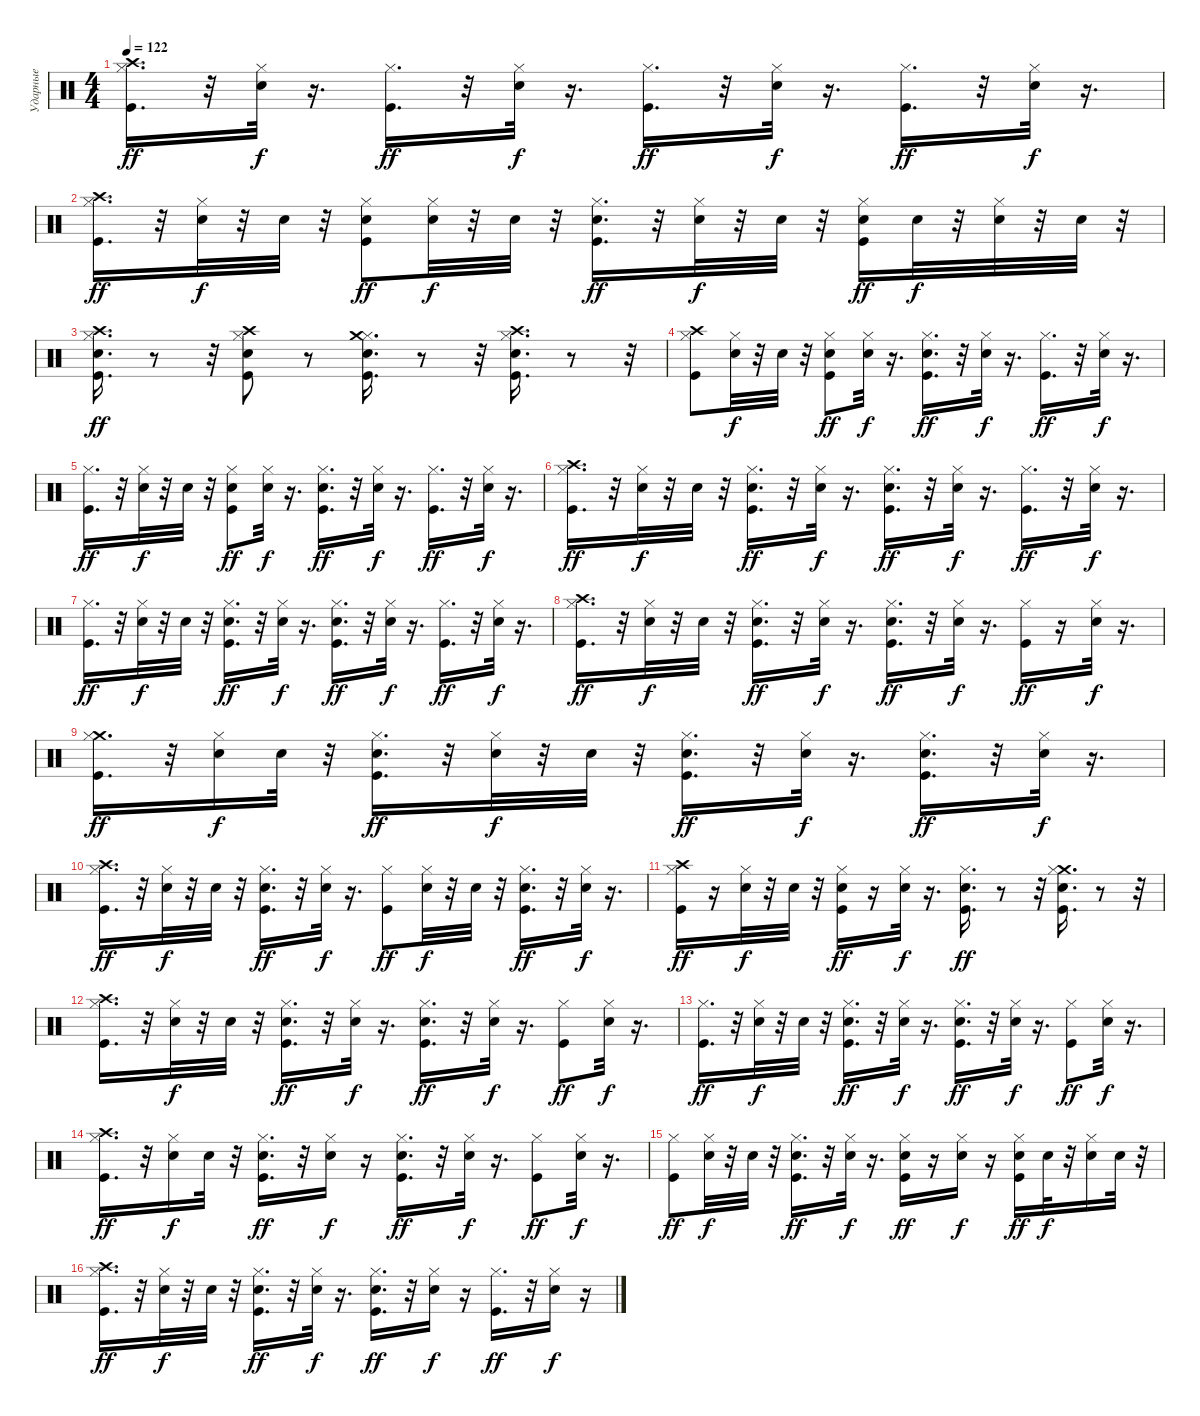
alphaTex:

\track ("Ударные" "Ударные") {instrument percussion}
\staff {score}
\articulation defaults
\ts (4 4)
\tempo 122
\clef neutral
\ks c
("Crash high (hit)" "Hi-Hat (closed)" "Kick (hit)").16{d dy ff} r.32 ("Hi-Hat (closed)" "Electric Snare (hit)").32{dy f} r.16{d} ("Hi-Hat (closed)" "Kick (hit)").16{d dy ff} r.32 ("Hi-Hat (closed)" "Electric Snare (hit)").32{dy f} r.16{d} ("Hi-Hat (closed)" "Kick (hit)").16{d dy ff} r.32 ("Hi-Hat (closed)" "Electric Snare (hit)").32{dy f} r.16{d} ("Hi-Hat (closed)" "Kick (hit)").16{d dy ff} r.32 ("Hi-Hat (closed)" "Electric Snare (hit)").32{dy f} r.16{d} |
("Crash high (hit)" "Hi-Hat (closed)" "Kick (hit)").16{d dy ff} r.32 ("Hi-Hat (closed)" "Electric Snare (hit)").32{dy f} r.32 "Electric Snare (hit)".32 r.32 ("Kick (hit)" "Hi-Hat (closed)" "Electric Snare (hit)").8{dy ff} ("Electric Snare (hit)" "Hi-Hat (closed)").32{dy f} r.32 "Electric Snare (hit)".32 r.32 ("Electric Snare (hit)" "Kick (hit)" "Hi-Hat (closed)").16{d dy ff} r.32 ("Hi-Hat (closed)" "Electric Snare (hit)").32{dy f} r.32 "Electric Snare (hit)".32 r.32 ("Kick (hit)" "Hi-Hat (closed)" "Electric Snare (hit)").16{dy ff} "Electric Snare (hit)".32{dy f} r.32 ("Electric Snare (hit)" "Hi-Hat (closed)").32 r.32 "Electric Snare (hit)".32 r.32 |
("Electric Snare (hit)" "Crash high (hit)" "Hi-Hat (closed)" "Kick (hit)").16{d dy ff} r.8 r.32 ("Electric Snare (hit)" "Crash high (hit)" "Hi-Hat (closed)" "Kick (hit)").8 r.8 ("Electric Snare (hit)" "Kick (hit)" "Hi-Hat (closed)" "Crash medium (hit)").16{d} r.8 r.32 ("Hi-Hat (closed)" "Kick (hit)" "Crash high (hit)" "Electric Snare (hit)").16{d} r.8 r.32 |
("Crash high (hit)" "Kick (hit)" "Hi-Hat (closed)").8 ("Electric Snare (hit)" "Hi-Hat (closed)").32{dy f} r.32 "Electric Snare (hit)".32 r.32 ("Electric Snare (hit)" "Hi-Hat (closed)" "Kick (hit)").8{dy ff} ("Electric Snare (hit)" "Hi-Hat (closed)").32{dy f} r.16{d} ("Electric Snare (hit)" "Hi-Hat (closed)" "Kick (hit)").16{d dy ff} r.32 ("Electric Snare (hit)" "Hi-Hat (closed)").32{dy f} r.16{d} ("Hi-Hat (closed)" "Kick (hit)").16{d dy ff} r.32 ("Electric Snare (hit)" "Hi-Hat (closed)").32{dy f} r.16{d} |
("Kick (hit)" "Hi-Hat (closed)").16{d dy ff} r.32 ("Electric Snare (hit)" "Hi-Hat (closed)").32{dy f} r.32 "Electric Snare (hit)".32 r.32 ("Electric Snare (hit)" "Hi-Hat (closed)" "Kick (hit)").8{dy ff} ("Electric Snare (hit)" "Hi-Hat (closed)").32{dy f} r.16{d} ("Electric Snare (hit)" "Kick (hit)" "Hi-Hat (closed)").16{d dy ff} r.32 ("Electric Snare (hit)" "Hi-Hat (closed)").32{dy f} r.16{d} ("Kick (hit)" "Hi-Hat (closed)").16{d dy ff} r.32 ("Hi-Hat (closed)" "Electric Snare (hit)").32{dy f} r.16{d} |
("Crash high (hit)" "Kick (hit)" "Hi-Hat (closed)").16{d dy ff} r.32 ("Hi-Hat (closed)" "Electric Snare (hit)").32{dy f} r.32 "Electric Snare (hit)".32 r.32 ("Hi-Hat (closed)" "Kick (hit)" "Electric Snare (hit)").16{d dy ff} r.32 ("Hi-Hat (closed)" "Electric Snare (hit)").32{dy f} r.16{d} ("Hi-Hat (closed)" "Kick (hit)" "Electric Snare (hit)").16{d dy ff} r.32 ("Hi-Hat (closed)" "Electric Snare (hit)").32{dy f} r.16{d} ("Hi-Hat (closed)" "Kick (hit)").16{d dy ff} r.32 ("Hi-Hat (closed)" "Electric Snare (hit)").32{dy f} r.16{d} |
("Hi-Hat (closed)" "Kick (hit)").16{d dy ff} r.32 ("Electric Snare (hit)" "Hi-Hat (closed)").32{dy f} r.32 "Electric Snare (hit)".32 r.32 ("Hi-Hat (closed)" "Kick (hit)" "Electric Snare (hit)").16{d dy ff} r.32 ("Hi-Hat (closed)" "Electric Snare (hit)").32{dy f} r.16{d} ("Kick (hit)" "Hi-Hat (closed)" "Electric Snare (hit)").16{d dy ff} r.32 ("Electric Snare (hit)" "Hi-Hat (closed)").32{dy f} r.16{d} ("Kick (hit)" "Hi-Hat (closed)").16{d dy ff} r.32 ("Hi-Hat (closed)" "Electric Snare (hit)").32{dy f} r.16{d} |
("Crash high (hit)" "Kick (hit)" "Hi-Hat (closed)").16{d dy ff} r.32 ("Hi-Hat (closed)" "Electric Snare (hit)").32{dy f} r.32 "Electric Snare (hit)".32 r.32 ("Hi-Hat (closed)" "Kick (hit)" "Electric Snare (hit)").16{d dy ff} r.32 ("Hi-Hat (closed)" "Electric Snare (hit)").32{dy f} r.16{d} ("Kick (hit)" "Hi-Hat (closed)" "Electric Snare (hit)").16{d dy ff} r.32 ("Hi-Hat (closed)" "Electric Snare (hit)").32{dy f} r.16{d} ("Kick (hit)" "Hi-Hat (closed)").16{dy ff} r.16 ("Hi-Hat (closed)" "Electric Snare (hit)").32{dy f} r.16{d} |
("Crash medium (hit)" "Kick (hit)" "Hi-Hat (closed)").16{d dy ff} r.32 ("Electric Snare (hit)" "Hi-Hat (closed)").16{dy f} "Electric Snare (hit)".32 r.32 ("Electric Snare (hit)" "Hi-Hat (closed)" "Kick (hit)").16{d dy ff} r.32 ("Hi-Hat (closed)" "Electric Snare (hit)").32{dy f} r.32 "Electric Snare (hit)".32 r.32 ("Kick (hit)" "Hi-Hat (closed)" "Electric Snare (hit)").16{d dy ff} r.32 ("Hi-Hat (closed)" "Electric Snare (hit)").32{dy f} r.16{d} ("Kick (hit)" "Hi-Hat (closed)" "Electric Snare (hit)").16{d dy ff} r.32 ("Hi-Hat (closed)" "Electric Snare (hit)").32{dy f} r.16{d} |
("Crash high (hit)" "Kick (hit)" "Hi-Hat (closed)").16{d dy ff} r.32 ("Hi-Hat (closed)" "Electric Snare (hit)").32{dy f} r.32 "Electric Snare (hit)".32 r.32 ("Kick (hit)" "Hi-Hat (closed)" "Electric Snare (hit)").16{d dy ff} r.32 ("Hi-Hat (closed)" "Electric Snare (hit)").32{dy f} r.16{d} ("Kick (hit)" "Hi-Hat (closed)").8{dy ff} ("Electric Snare (hit)" "Hi-Hat (closed)").32{dy f} r.32 "Electric Snare (hit)".32 r.32 ("Electric Snare (hit)" "Kick (hit)" "Hi-Hat (closed)").16{d dy ff} r.32 ("Hi-Hat (closed)" "Electric Snare (hit)").32{dy f} r.16{d} |
("Crash high (hit)" "Kick (hit)" "Hi-Hat (closed)").16{dy ff} r.16 ("Electric Snare (hit)" "Hi-Hat (closed)").32{dy f} r.32 "Electric Snare (hit)".32 r.32 ("Electric Snare (hit)" "Hi-Hat (closed)" "Kick (hit)").16{dy ff} r.16 ("Hi-Hat (closed)" "Electric Snare (hit)").32{dy f} r.16{d} ("Kick (hit)" "Hi-Hat (closed)" "Electric Snare (hit)").16{d dy ff} r.8 r.32 ("Crash medium (hit)" "Kick (hit)" "Hi-Hat (closed)" "Electric Snare (hit)").16{d} r.8 r.32 |
("Crash high (hit)" "Hi-Hat (closed)" "Kick (hit)").16{d} r.32 ("Hi-Hat (closed)" "Electric Snare (hit)").32{dy f} r.32 "Electric Snare (hit)".32 r.32 ("Hi-Hat (closed)" "Kick (hit)" "Electric Snare (hit)").16{d dy ff} r.32 ("Hi-Hat (closed)" "Electric Snare (hit)").32{dy f} r.16{d} ("Kick (hit)" "Hi-Hat (closed)" "Electric Snare (hit)").16{d dy ff} r.32 ("Hi-Hat (closed)" "Electric Snare (hit)").32{dy f} r.16{d} ("Kick (hit)" "Hi-Hat (closed)").8{dy ff} ("Hi-Hat (closed)" "Electric Snare (hit)").32{dy f} r.16{d} |
("Kick (hit)" "Hi-Hat (closed)").16{d dy ff} r.32 ("Electric Snare (hit)" "Hi-Hat (closed)").32{dy f} r.32 "Electric Snare (hit)".32 r.32 ("Electric Snare (hit)" "Kick (hit)" "Hi-Hat (closed)").16{d dy ff} r.32 ("Hi-Hat (closed)" "Electric Snare (hit)").32{dy f} r.16{d} ("Kick (hit)" "Hi-Hat (closed)" "Electric Snare (hit)").16{d dy ff} r.32 ("Hi-Hat (closed)" "Electric Snare (hit)").32{dy f} r.16{d} ("Kick (hit)" "Hi-Hat (closed)").8{dy ff} ("Hi-Hat (closed)" "Electric Snare (hit)").32{dy f} r.16{d} |
("Crash high (hit)" "Hi-Hat (closed)" "Kick (hit)").16{d dy ff} r.32 ("Electric Snare (hit)" "Hi-Hat (closed)").16{dy f} "Electric Snare (hit)".32 r.32 ("Electric Snare (hit)" "Hi-Hat (closed)" "Kick (hit)").16{d dy ff} r.32 ("Hi-Hat (closed)" "Electric Snare (hit)").16{dy f} r.16 ("Hi-Hat (closed)" "Kick (hit)" "Electric Snare (hit)").16{d dy ff} r.32 ("Hi-Hat (closed)" "Electric Snare (hit)").32{dy f} r.16{d} ("Hi-Hat (closed)" "Kick (hit)").8{dy ff} ("Hi-Hat (closed)" "Electric Snare (hit)").32{dy f} r.16{d} |
("Hi-Hat (closed)" "Kick (hit)").8{dy ff} ("Hi-Hat (closed)" "Electric Snare (hit)").32{dy f} r.32 "Electric Snare (hit)".32 r.32 ("Hi-Hat (closed)" "Kick (hit)" "Electric Snare (hit)").16{d dy ff} r.32 ("Hi-Hat (closed)" "Electric Snare (hit)").32{dy f} r.16{d} ("Hi-Hat (closed)" "Kick (hit)" "Electric Snare (hit)").16{dy ff} r.16 ("Hi-Hat (closed)" "Electric Snare (hit)").16{dy f} r.16 ("Electric Snare (hit)" "Hi-Hat (closed)" "Kick (hit)").16{dy ff} "Electric Snare (hit)".32{dy f} r.32 ("Electric Snare (hit)" "Hi-Hat (closed)").16 "Electric Snare (hit)".32 r.32 |
("Crash high (hit)" "Hi-Hat (closed)" "Kick (hit)").16{d dy ff} r.32 ("Hi-Hat (closed)" "Electric Snare (hit)").32{dy f} r.32 "Electric Snare (hit)".32 r.32 ("Electric Snare (hit)" "Hi-Hat (closed)" "Kick (hit)").16{d dy ff} r.32 ("Hi-Hat (closed)" "Electric Snare (hit)").32{dy f} r.16{d} ("Hi-Hat (closed)" "Kick (hit)" "Electric Snare (hit)").16{d dy ff} r.32 ("Hi-Hat (closed)" "Electric Snare (hit)").16{dy f} r.16 ("Hi-Hat (closed)" "Kick (hit)").16{d dy ff} r.32 ("Hi-Hat (closed)" "Electric Snare (hit)").16{dy f} r.16
